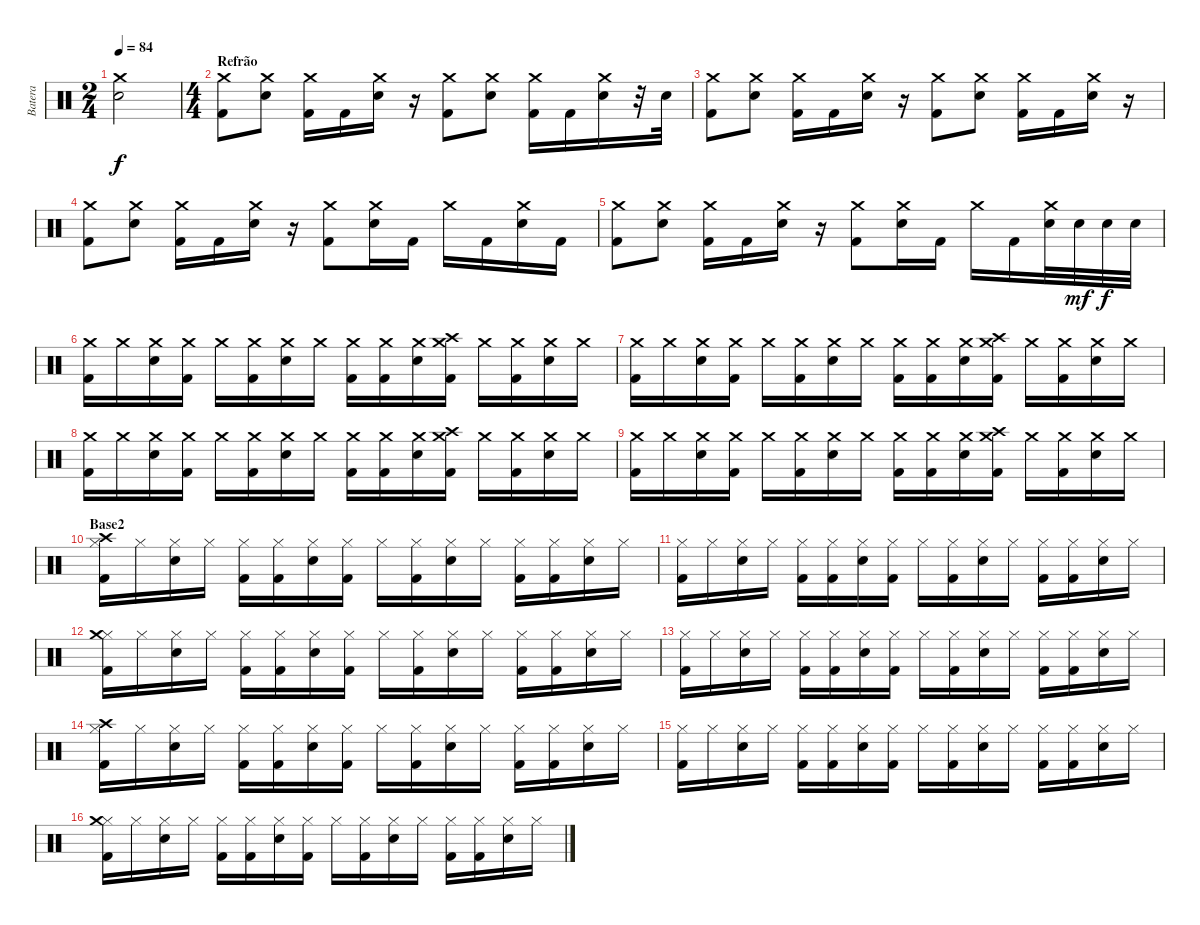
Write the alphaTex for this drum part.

\track ("Batera" "Batera") {instrument percussion}
\staff {score}
\articulation defaults
\ts (2 4)
\tempo 84
\clef neutral
\ks c
("Snare (hit) 2" "Crash medium (hit)").2{dy f} |
\ts (4 4)
\section ("" "Refrão")
("Crash medium (hit)" "Kick (hit) 2").8 ("Snare (hit) 2" "Crash medium (hit)").8 ("Crash medium (hit)" "Kick (hit) 2").16 "Kick (hit) 2".16 ("Snare (hit) 2" "Crash medium (hit)").16 r.16 ("Crash medium (hit)" "Kick (hit) 2").8 ("Snare (hit) 2" "Crash medium (hit)").8 ("Crash medium (hit)" "Kick (hit) 2").16 "Kick (hit) 2".16 ("Snare (hit) 2" "Crash medium (hit)").16 r.32 "Snare (hit) 2".32 |
("Crash medium (hit)" "Kick (hit) 2").8 ("Snare (hit) 2" "Crash medium (hit)").8 ("Crash medium (hit)" "Kick (hit) 2").16 "Kick (hit) 2".16 ("Snare (hit) 2" "Crash medium (hit)").16 r.16 ("Crash medium (hit)" "Kick (hit) 2").8 ("Snare (hit) 2" "Crash medium (hit)").8 ("Crash medium (hit)" "Kick (hit) 2").16 "Kick (hit) 2".16 ("Snare (hit) 2" "Crash medium (hit)").16 r.16 |
("Crash medium (hit)" "Kick (hit) 2").8 ("Snare (hit) 2" "Crash medium (hit)").8 ("Crash medium (hit)" "Kick (hit) 2").16 "Kick (hit) 2".16 ("Snare (hit) 2" "Crash medium (hit)").16 r.16 ("Crash medium (hit)" "Kick (hit) 2").8 ("Snare (hit) 2" "Crash medium (hit)").16 "Kick (hit) 2".16 "Crash medium (hit)".16 "Kick (hit) 2".16 ("Snare (hit) 2" "Crash medium (hit)").16 "Kick (hit) 2".16 |
("Crash medium (hit)" "Kick (hit) 2").8 ("Snare (hit) 2" "Crash medium (hit)").8 ("Crash medium (hit)" "Kick (hit) 2").16 "Kick (hit) 2".16 ("Snare (hit) 2" "Crash medium (hit)").16 r.16 ("Crash medium (hit)" "Kick (hit) 2").8 ("Snare (hit) 2" "Crash medium (hit)").16 "Kick (hit) 2".16 "Crash medium (hit)".16 "Kick (hit) 2".16 ("Snare (hit) 2" "Crash medium (hit)").32 "Snare (hit) 2".32{dy mf} "Snare (hit) 2".32{dy f} "Snare (hit) 2".32 |
("Crash medium (hit)" "Kick (hit) 2").16 "Crash medium (hit)".16 ("Snare (hit) 2" "Crash medium (hit)").16 ("Crash medium (hit)" "Kick (hit) 2").16 "Crash medium (hit)".16 ("Crash medium (hit)" "Kick (hit) 2").16 ("Snare (hit) 2" "Crash medium (hit)").16 "Crash medium (hit)".16 ("Crash medium (hit)" "Kick (hit) 2").16 ("Crash medium (hit)" "Kick (hit) 2").16 ("Snare (hit) 2" "Crash medium (hit)").16 ("Crash medium (hit)" "Crash high (hit)" "Kick (hit) 2").16 "Crash medium (hit)".16 ("Crash medium (hit)" "Kick (hit) 2").16 ("Snare (hit) 2" "Crash medium (hit)").16 "Crash medium (hit)".16 |
("Crash medium (hit)" "Kick (hit) 2").16 "Crash medium (hit)".16 ("Snare (hit) 2" "Crash medium (hit)").16 ("Crash medium (hit)" "Kick (hit) 2").16 "Crash medium (hit)".16 ("Crash medium (hit)" "Kick (hit) 2").16 ("Snare (hit) 2" "Crash medium (hit)").16 "Crash medium (hit)".16 ("Crash medium (hit)" "Kick (hit) 2").16 ("Crash medium (hit)" "Kick (hit) 2").16 ("Snare (hit) 2" "Crash medium (hit)").16 ("Crash medium (hit)" "Crash high (hit)" "Kick (hit) 2").16 "Crash medium (hit)".16 ("Crash medium (hit)" "Kick (hit) 2").16 ("Snare (hit) 2" "Crash medium (hit)").16 "Crash medium (hit)".16 |
("Crash medium (hit)" "Kick (hit) 2").16 "Crash medium (hit)".16 ("Snare (hit) 2" "Crash medium (hit)").16 ("Crash medium (hit)" "Kick (hit) 2").16 "Crash medium (hit)".16 ("Crash medium (hit)" "Kick (hit) 2").16 ("Snare (hit) 2" "Crash medium (hit)").16 "Crash medium (hit)".16 ("Crash medium (hit)" "Kick (hit) 2").16 ("Crash medium (hit)" "Kick (hit) 2").16 ("Snare (hit) 2" "Crash medium (hit)").16 ("Crash medium (hit)" "Crash high (hit)" "Kick (hit) 2").16 "Crash medium (hit)".16 ("Crash medium (hit)" "Kick (hit) 2").16 ("Snare (hit) 2" "Crash medium (hit)").16 "Crash medium (hit)".16 |
("Crash medium (hit)" "Kick (hit) 2").16 "Crash medium (hit)".16 ("Snare (hit) 2" "Crash medium (hit)").16 ("Crash medium (hit)" "Kick (hit) 2").16 "Crash medium (hit)".16 ("Crash medium (hit)" "Kick (hit) 2").16 ("Snare (hit) 2" "Crash medium (hit)").16 "Crash medium (hit)".16 ("Crash medium (hit)" "Kick (hit) 2").16 ("Crash medium (hit)" "Kick (hit) 2").16 ("Snare (hit) 2" "Crash medium (hit)").16 ("Crash medium (hit)" "Crash high (hit)" "Kick (hit) 2").16 "Crash medium (hit)".16 ("Crash medium (hit)" "Kick (hit) 2").16 ("Snare (hit) 2" "Crash medium (hit)").16 "Crash medium (hit)".16 |
\section ("" "Base2")
("Hi-Hat (closed)" "Crash high (hit)" "Kick (hit) 2").16 "Hi-Hat (closed)".16 ("Hi-Hat (closed)" "Snare (hit) 2").16 "Hi-Hat (closed)".16 ("Hi-Hat (closed)" "Kick (hit) 2").16 ("Hi-Hat (closed)" "Kick (hit) 2").16 ("Hi-Hat (closed)" "Snare (hit) 2").16 ("Hi-Hat (closed)" "Kick (hit) 2").16 "Hi-Hat (closed)".16 ("Hi-Hat (closed)" "Kick (hit) 2").16 ("Hi-Hat (closed)" "Snare (hit) 2").16 "Hi-Hat (closed)".16 ("Hi-Hat (closed)" "Kick (hit) 2").16 ("Hi-Hat (closed)" "Kick (hit) 2").16 ("Hi-Hat (closed)" "Snare (hit) 2").16 "Hi-Hat (closed)".16 |
("Hi-Hat (closed)" "Kick (hit) 2").16 "Hi-Hat (closed)".16 ("Hi-Hat (closed)" "Snare (hit) 2").16 "Hi-Hat (closed)".16 ("Hi-Hat (closed)" "Kick (hit) 2").16 ("Hi-Hat (closed)" "Kick (hit) 2").16 ("Hi-Hat (closed)" "Snare (hit) 2").16 ("Hi-Hat (closed)" "Kick (hit) 2").16 "Hi-Hat (closed)".16 ("Hi-Hat (closed)" "Kick (hit) 2").16 ("Hi-Hat (closed)" "Snare (hit) 2").16 "Hi-Hat (closed)".16 ("Hi-Hat (closed)" "Kick (hit) 2").16 ("Hi-Hat (closed)" "Kick (hit) 2").16 ("Hi-Hat (closed)" "Snare (hit) 2").16 "Hi-Hat (closed)".16 |
("Hi-Hat (closed)" "Crash medium (hit)" "Kick (hit) 2").16 "Hi-Hat (closed)".16 ("Hi-Hat (closed)" "Snare (hit) 2").16 "Hi-Hat (closed)".16 ("Hi-Hat (closed)" "Kick (hit) 2").16 ("Hi-Hat (closed)" "Kick (hit) 2").16 ("Hi-Hat (closed)" "Snare (hit) 2").16 ("Hi-Hat (closed)" "Kick (hit) 2").16 "Hi-Hat (closed)".16 ("Hi-Hat (closed)" "Kick (hit) 2").16 ("Hi-Hat (closed)" "Snare (hit) 2").16 "Hi-Hat (closed)".16 ("Hi-Hat (closed)" "Kick (hit) 2").16 ("Hi-Hat (closed)" "Kick (hit) 2").16 ("Hi-Hat (closed)" "Snare (hit) 2").16 "Hi-Hat (closed)".16 |
("Hi-Hat (closed)" "Kick (hit) 2").16 "Hi-Hat (closed)".16 ("Hi-Hat (closed)" "Snare (hit) 2").16 "Hi-Hat (closed)".16 ("Hi-Hat (closed)" "Kick (hit) 2").16 ("Hi-Hat (closed)" "Kick (hit) 2").16 ("Hi-Hat (closed)" "Snare (hit) 2").16 ("Hi-Hat (closed)" "Kick (hit) 2").16 "Hi-Hat (closed)".16 ("Hi-Hat (closed)" "Kick (hit) 2").16 ("Hi-Hat (closed)" "Snare (hit) 2").16 "Hi-Hat (closed)".16 ("Hi-Hat (closed)" "Kick (hit) 2").16 ("Hi-Hat (closed)" "Kick (hit) 2").16 ("Hi-Hat (closed)" "Snare (hit) 2").16 "Hi-Hat (closed)".16 |
("Hi-Hat (closed)" "Crash high (hit)" "Kick (hit) 2").16 "Hi-Hat (closed)".16 ("Hi-Hat (closed)" "Snare (hit) 2").16 "Hi-Hat (closed)".16 ("Hi-Hat (closed)" "Kick (hit) 2").16 ("Hi-Hat (closed)" "Kick (hit) 2").16 ("Hi-Hat (closed)" "Snare (hit) 2").16 ("Hi-Hat (closed)" "Kick (hit) 2").16 "Hi-Hat (closed)".16 ("Hi-Hat (closed)" "Kick (hit) 2").16 ("Hi-Hat (closed)" "Snare (hit) 2").16 "Hi-Hat (closed)".16 ("Hi-Hat (closed)" "Kick (hit) 2").16 ("Hi-Hat (closed)" "Kick (hit) 2").16 ("Hi-Hat (closed)" "Snare (hit) 2").16 "Hi-Hat (closed)".16 |
("Hi-Hat (closed)" "Kick (hit) 2").16 "Hi-Hat (closed)".16 ("Hi-Hat (closed)" "Snare (hit) 2").16 "Hi-Hat (closed)".16 ("Hi-Hat (closed)" "Kick (hit) 2").16 ("Hi-Hat (closed)" "Kick (hit) 2").16 ("Hi-Hat (closed)" "Snare (hit) 2").16 ("Hi-Hat (closed)" "Kick (hit) 2").16 "Hi-Hat (closed)".16 ("Hi-Hat (closed)" "Kick (hit) 2").16 ("Hi-Hat (closed)" "Snare (hit) 2").16 "Hi-Hat (closed)".16 ("Hi-Hat (closed)" "Kick (hit) 2").16 ("Hi-Hat (closed)" "Kick (hit) 2").16 ("Hi-Hat (closed)" "Snare (hit) 2").16 "Hi-Hat (closed)".16 |
("Hi-Hat (closed)" "Crash medium (hit)" "Kick (hit) 2").16 "Hi-Hat (closed)".16 ("Hi-Hat (closed)" "Snare (hit) 2").16 "Hi-Hat (closed)".16 ("Hi-Hat (closed)" "Kick (hit) 2").16 ("Hi-Hat (closed)" "Kick (hit) 2").16 ("Hi-Hat (closed)" "Snare (hit) 2").16 ("Hi-Hat (closed)" "Kick (hit) 2").16 "Hi-Hat (closed)".16 ("Hi-Hat (closed)" "Kick (hit) 2").16 ("Hi-Hat (closed)" "Snare (hit) 2").16 "Hi-Hat (closed)".16 ("Hi-Hat (closed)" "Kick (hit) 2").16 ("Hi-Hat (closed)" "Kick (hit) 2").16 ("Hi-Hat (closed)" "Snare (hit) 2").16 "Hi-Hat (closed)".16
